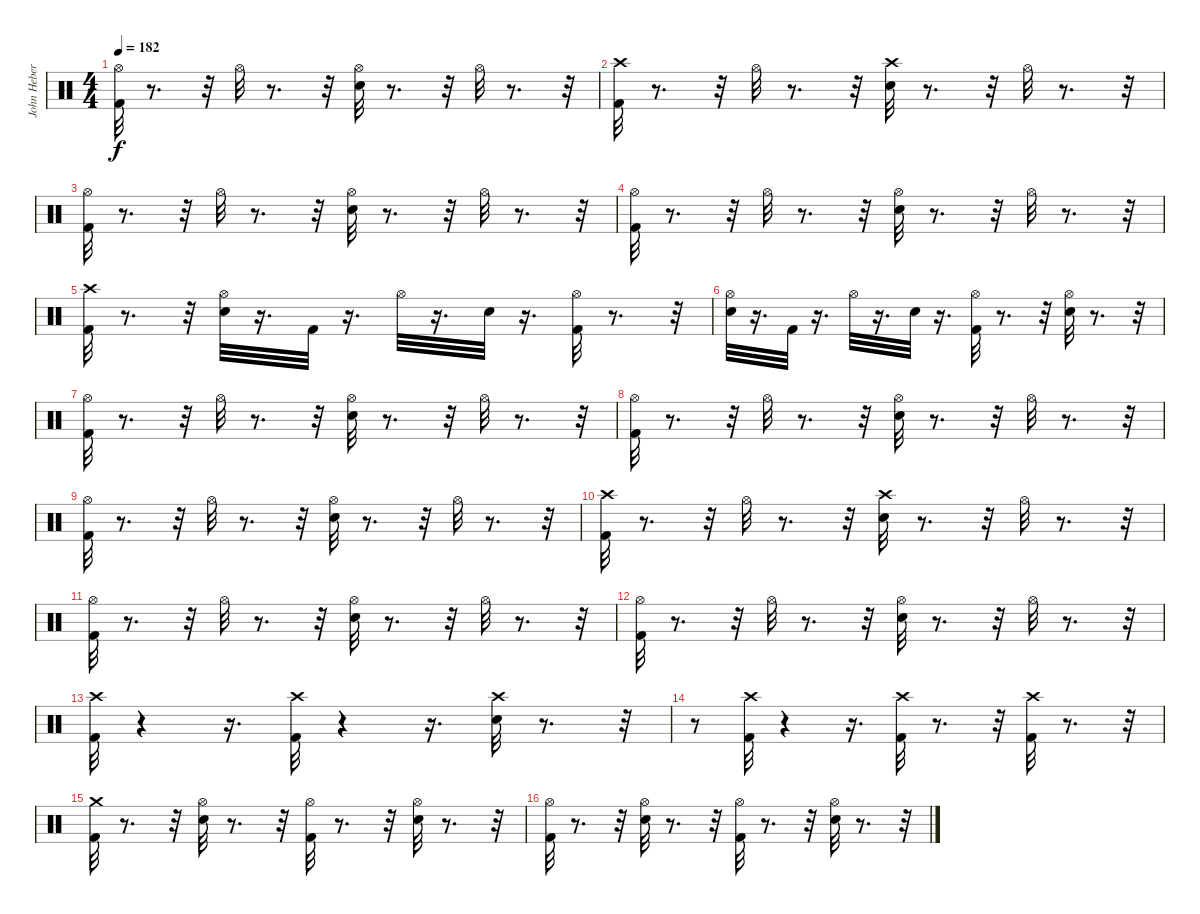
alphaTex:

\track ("John Hebert" "John Heber") {instrument percussion}
\staff {score}
\articulation defaults
\ts (4 4)
\tempo 182
\clef neutral
\ks c
("Kick (hit) 2" "Hi-Hat (open)").32{dy f} r.8{d} r.32 "Hi-Hat (open)".32 r.8{d} r.32 ("Snare (hit) 2" "Hi-Hat (open)").32 r.8{d} r.32 "Hi-Hat (open)".32 r.8{d} r.32 |
("Kick (hit) 2" "Crash high (hit)").32 r.8{d} r.32 "Hi-Hat (open)".32 r.8{d} r.32 ("Snare (hit) 2" "Crash high (hit)").32 r.8{d} r.32 "Hi-Hat (open)".32 r.8{d} r.32 |
("Kick (hit) 2" "Hi-Hat (open)").32 r.8{d} r.32 "Hi-Hat (open)".32 r.8{d} r.32 ("Snare (hit) 2" "Hi-Hat (open)").32 r.8{d} r.32 "Hi-Hat (open)".32 r.8{d} r.32 |
("Kick (hit) 2" "Hi-Hat (open)").32 r.8{d} r.32 "Hi-Hat (open)".32 r.8{d} r.32 ("Snare (hit) 2" "Hi-Hat (open)").32 r.8{d} r.32 "Hi-Hat (open)".32 r.8{d} r.32 |
("Kick (hit) 2" "Crash high (hit)").32 r.8{d} r.32 ("Snare (hit) 2" "Hi-Hat (open)").32 r.16{d} "Kick (hit) 2".32 r.16{d} "Hi-Hat (open)".32 r.16{d} "Snare (hit) 2".32 r.16{d} ("Kick (hit) 2" "Hi-Hat (open)").32 r.8{d} r.32 |
("Snare (hit) 2" "Hi-Hat (open)").32 r.16{d} "Kick (hit) 2".32 r.16{d} "Hi-Hat (open)".32 r.16{d} "Snare (hit) 2".32 r.16{d} ("Kick (hit) 2" "Hi-Hat (open)").32 r.8{d} r.32 ("Snare (hit) 2" "Hi-Hat (open)").32 r.8{d} r.32 |
("Kick (hit) 2" "Hi-Hat (open)").32 r.8{d} r.32 "Hi-Hat (open)".32 r.8{d} r.32 ("Snare (hit) 2" "Hi-Hat (open)").32 r.8{d} r.32 "Hi-Hat (open)".32 r.8{d} r.32 |
("Kick (hit) 2" "Hi-Hat (open)").32 r.8{d} r.32 "Hi-Hat (open)".32 r.8{d} r.32 ("Snare (hit) 2" "Hi-Hat (open)").32 r.8{d} r.32 "Hi-Hat (open)".32 r.8{d} r.32 |
("Kick (hit) 2" "Hi-Hat (open)").32 r.8{d} r.32 "Hi-Hat (open)".32 r.8{d} r.32 ("Snare (hit) 2" "Hi-Hat (open)").32 r.8{d} r.32 "Hi-Hat (open)".32 r.8{d} r.32 |
("Kick (hit) 2" "Crash high (hit)").32 r.8{d} r.32 "Hi-Hat (open)".32 r.8{d} r.32 ("Snare (hit) 2" "Crash high (hit)").32 r.8{d} r.32 "Hi-Hat (open)".32 r.8{d} r.32 |
("Kick (hit) 2" "Hi-Hat (open)").32 r.8{d} r.32 "Hi-Hat (open)".32 r.8{d} r.32 ("Snare (hit) 2" "Hi-Hat (open)").32 r.8{d} r.32 "Hi-Hat (open)".32 r.8{d} r.32 |
("Kick (hit) 2" "Hi-Hat (open)").32 r.8{d} r.32 "Hi-Hat (open)".32 r.8{d} r.32 ("Snare (hit) 2" "Hi-Hat (open)").32 r.8{d} r.32 "Hi-Hat (open)".32 r.8{d} r.32 |
("Crash high (hit)" "Kick (hit) 2").32 r.4 r.16{d} ("Crash high (hit)" "Kick (hit) 2").32 r.4 r.16{d} ("Crash high (hit)" "Snare (hit) 2").32 r.8{d} r.32 |
r.8 ("Crash high (hit)" "Kick (hit) 2").32 r.4 r.16{d} ("Kick (hit) 2" "Crash high (hit)").32 r.8{d} r.32 ("Kick (hit) 2" "Crash high (hit)").32 r.8{d} r.32 |
("Crash medium (hit)" "Kick (hit) 2").32 r.8{d} r.32 ("Hi-Hat (open)" "Snare (hit) 2").32 r.8{d} r.32 ("Hi-Hat (open)" "Kick (hit) 2").32 r.8{d} r.32 ("Hi-Hat (open)" "Snare (hit) 2").32 r.8{d} r.32 |
("Hi-Hat (open)" "Kick (hit) 2").32 r.8{d} r.32 ("Hi-Hat (open)" "Snare (hit) 2").32 r.8{d} r.32 ("Hi-Hat (open)" "Kick (hit) 2").32 r.8{d} r.32 ("Hi-Hat (open)" "Snare (hit) 2").32 r.8{d} r.32
